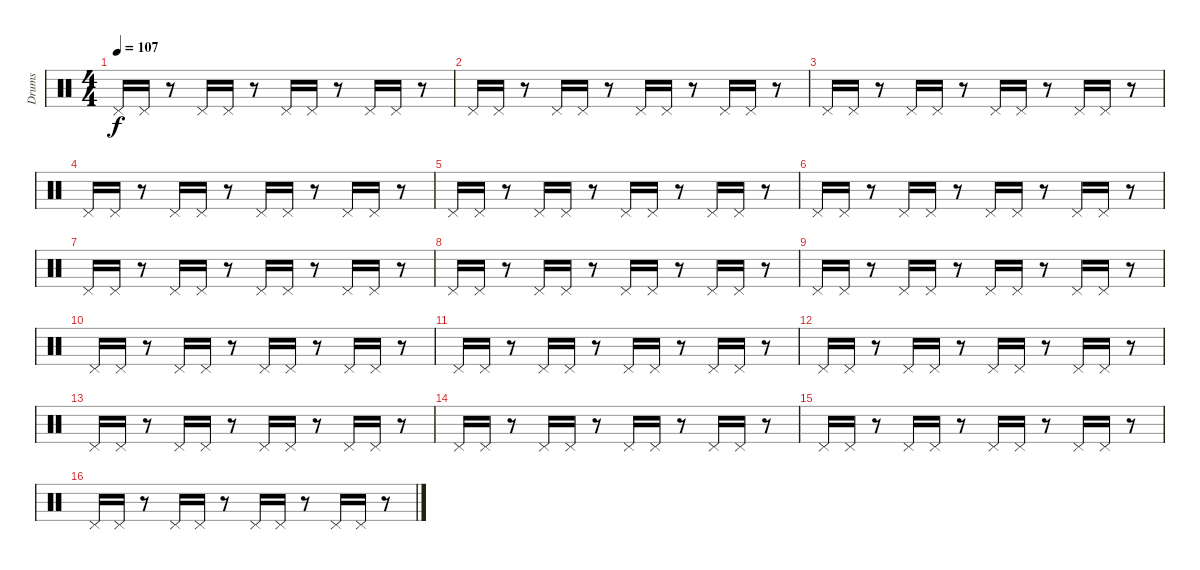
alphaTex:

\track ("Drums" "Drums") {instrument percussion}
\staff {score}
\articulation defaults
\ts (4 4)
\tempo 107
\clef neutral
\ks c "Pedal Hi-Hat (hit)".16{dy f volume 1} "Pedal Hi-Hat (hit)".16
r.8 "Pedal Hi-Hat (hit)".16 "Pedal Hi-Hat (hit)".16 r.8 "Pedal Hi-Hat (hit)".16 "Pedal Hi-Hat (hit)".16 r.8 "Pedal Hi-Hat (hit)".16 "Pedal Hi-Hat (hit)".16 r.8 |
"Pedal Hi-Hat (hit)".16 "Pedal Hi-Hat (hit)".16 r.8 "Pedal Hi-Hat (hit)".16 "Pedal Hi-Hat (hit)".16 r.8 "Pedal Hi-Hat (hit)".16 "Pedal Hi-Hat (hit)".16 r.8 "Pedal Hi-Hat (hit)".16 "Pedal Hi-Hat (hit)".16 r.8 |
"Pedal Hi-Hat (hit)".16 "Pedal Hi-Hat (hit)".16 r.8 "Pedal Hi-Hat (hit)".16 "Pedal Hi-Hat (hit)".16 r.8 "Pedal Hi-Hat (hit)".16 "Pedal Hi-Hat (hit)".16 r.8 "Pedal Hi-Hat (hit)".16 "Pedal Hi-Hat (hit)".16 r.8 |
"Pedal Hi-Hat (hit)".16 "Pedal Hi-Hat (hit)".16 r.8 "Pedal Hi-Hat (hit)".16 "Pedal Hi-Hat (hit)".16 r.8 "Pedal Hi-Hat (hit)".16 "Pedal Hi-Hat (hit)".16 r.8 "Pedal Hi-Hat (hit)".16 "Pedal Hi-Hat (hit)".16 r.8 |
"Pedal Hi-Hat (hit)".16{volume 2} "Pedal Hi-Hat (hit)".16 r.8 "Pedal Hi-Hat (hit)".16 "Pedal Hi-Hat (hit)".16 r.8 "Pedal Hi-Hat (hit)".16 "Pedal Hi-Hat (hit)".16 r.8 "Pedal Hi-Hat (hit)".16 "Pedal Hi-Hat (hit)".16 r.8 |
"Pedal Hi-Hat (hit)".16 "Pedal Hi-Hat (hit)".16 r.8 "Pedal Hi-Hat (hit)".16 "Pedal Hi-Hat (hit)".16 r.8 "Pedal Hi-Hat (hit)".16 "Pedal Hi-Hat (hit)".16 r.8 "Pedal Hi-Hat (hit)".16 "Pedal Hi-Hat (hit)".16 r.8 |
"Pedal Hi-Hat (hit)".16 "Pedal Hi-Hat (hit)".16 r.8 "Pedal Hi-Hat (hit)".16 "Pedal Hi-Hat (hit)".16 r.8 "Pedal Hi-Hat (hit)".16 "Pedal Hi-Hat (hit)".16 r.8 "Pedal Hi-Hat (hit)".16 "Pedal Hi-Hat (hit)".16 r.8 |
"Pedal Hi-Hat (hit)".16 "Pedal Hi-Hat (hit)".16 r.8 "Pedal Hi-Hat (hit)".16 "Pedal Hi-Hat (hit)".16 r.8 "Pedal Hi-Hat (hit)".16 "Pedal Hi-Hat (hit)".16 r.8 "Pedal Hi-Hat (hit)".16 "Pedal Hi-Hat (hit)".16 r.8 |
"Pedal Hi-Hat (hit)".16 "Pedal Hi-Hat (hit)".16 r.8 "Pedal Hi-Hat (hit)".16 "Pedal Hi-Hat (hit)".16 r.8 "Pedal Hi-Hat (hit)".16 "Pedal Hi-Hat (hit)".16 r.8 "Pedal Hi-Hat (hit)".16 "Pedal Hi-Hat (hit)".16 r.8 |
"Pedal Hi-Hat (hit)".16 "Pedal Hi-Hat (hit)".16 r.8 "Pedal Hi-Hat (hit)".16 "Pedal Hi-Hat (hit)".16 r.8 "Pedal Hi-Hat (hit)".16 "Pedal Hi-Hat (hit)".16 r.8 "Pedal Hi-Hat (hit)".16 "Pedal Hi-Hat (hit)".16 r.8 |
"Pedal Hi-Hat (hit)".16 "Pedal Hi-Hat (hit)".16 r.8 "Pedal Hi-Hat (hit)".16 "Pedal Hi-Hat (hit)".16 r.8 "Pedal Hi-Hat (hit)".16 "Pedal Hi-Hat (hit)".16 r.8 "Pedal Hi-Hat (hit)".16 "Pedal Hi-Hat (hit)".16 r.8 |
"Pedal Hi-Hat (hit)".16 "Pedal Hi-Hat (hit)".16 r.8 "Pedal Hi-Hat (hit)".16 "Pedal Hi-Hat (hit)".16 r.8 "Pedal Hi-Hat (hit)".16 "Pedal Hi-Hat (hit)".16 r.8 "Pedal Hi-Hat (hit)".16 "Pedal Hi-Hat (hit)".16 r.8 |
"Pedal Hi-Hat (hit)".16 "Pedal Hi-Hat (hit)".16 r.8 "Pedal Hi-Hat (hit)".16 "Pedal Hi-Hat (hit)".16 r.8 "Pedal Hi-Hat (hit)".16 "Pedal Hi-Hat (hit)".16 r.8 "Pedal Hi-Hat (hit)".16 "Pedal Hi-Hat (hit)".16 r.8 |
"Pedal Hi-Hat (hit)".16 "Pedal Hi-Hat (hit)".16 r.8 "Pedal Hi-Hat (hit)".16 "Pedal Hi-Hat (hit)".16 r.8 "Pedal Hi-Hat (hit)".16 "Pedal Hi-Hat (hit)".16 r.8 "Pedal Hi-Hat (hit)".16 "Pedal Hi-Hat (hit)".16 r.8 |
"Pedal Hi-Hat (hit)".16 "Pedal Hi-Hat (hit)".16 r.8 "Pedal Hi-Hat (hit)".16 "Pedal Hi-Hat (hit)".16 r.8 "Pedal Hi-Hat (hit)".16 "Pedal Hi-Hat (hit)".16 r.8 "Pedal Hi-Hat (hit)".16 "Pedal Hi-Hat (hit)".16 r.8 |
"Pedal Hi-Hat (hit)".16 "Pedal Hi-Hat (hit)".16 r.8 "Pedal Hi-Hat (hit)".16 "Pedal Hi-Hat (hit)".16 r.8 "Pedal Hi-Hat (hit)".16 "Pedal Hi-Hat (hit)".16 r.8 "Pedal Hi-Hat (hit)".16 "Pedal Hi-Hat (hit)".16 r.8
